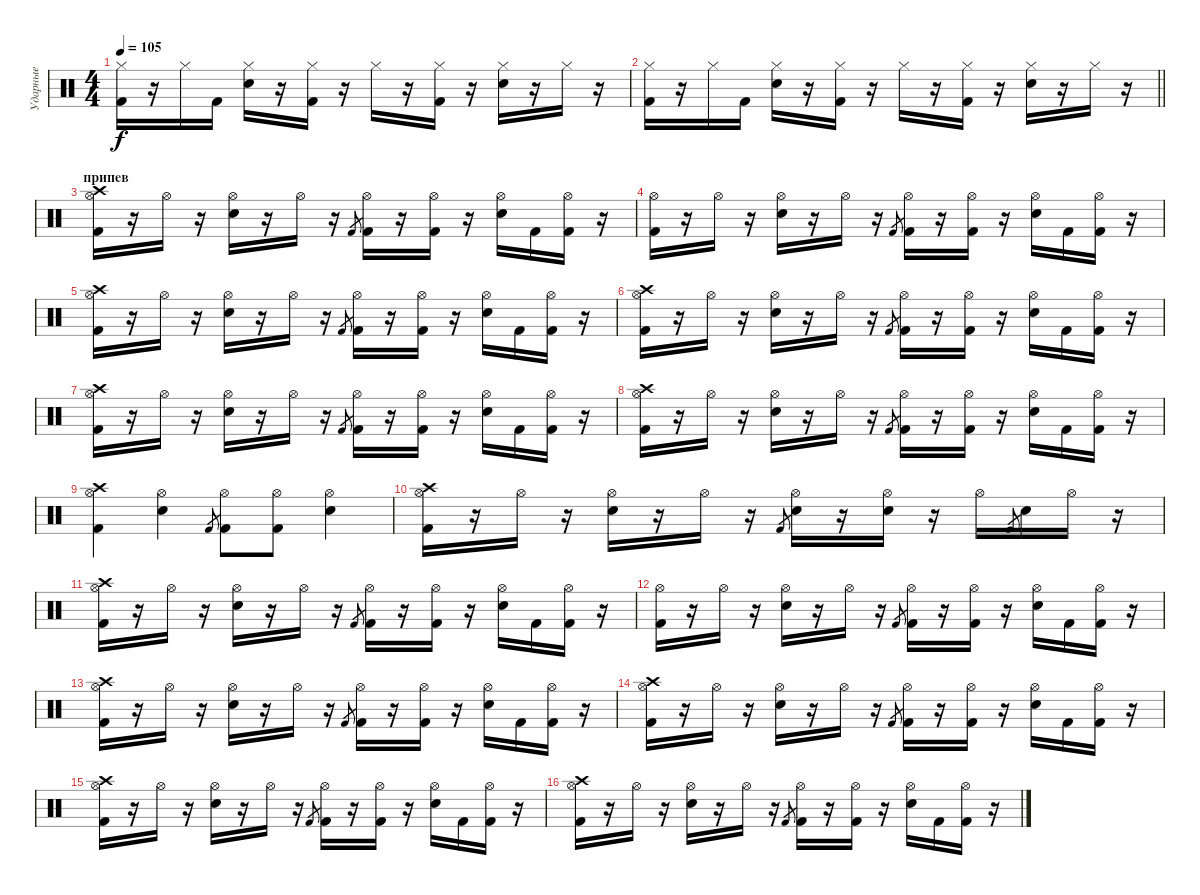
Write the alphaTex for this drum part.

\track ("Ударные" "Ударные") {instrument percussion}
\staff {score}
\articulation defaults
\ts (4 4)
\tempo 105
\clef neutral
\ks c
("Hi-Hat (closed)" "Kick (hit) 2").16{dy f} r.16 "Hi-Hat (closed)".16 "Kick (hit) 2".16 ("Hi-Hat (closed)" "Electric Snare (hit)").16 r.16 ("Hi-Hat (closed)" "Kick (hit) 2").16 r.16 "Hi-Hat (closed)".16 r.16 ("Hi-Hat (closed)" "Kick (hit) 2").16 r.16 ("Hi-Hat (closed)" "Electric Snare (hit)").16 r.16 "Hi-Hat (closed)".16 r.16 |
\barLineRight lightlight
("Hi-Hat (closed)" "Kick (hit) 2").16 r.16 "Hi-Hat (closed)".16 "Kick (hit) 2".16 ("Hi-Hat (closed)" "Electric Snare (hit)").16 r.16 ("Hi-Hat (closed)" "Kick (hit) 2").16 r.16 "Hi-Hat (closed)".16 r.16 ("Hi-Hat (closed)" "Kick (hit) 2").16 r.16 ("Hi-Hat (closed)" "Electric Snare (hit)").16 r.16 "Hi-Hat (closed)".16 r.16 |
\section ("" "припев")
("Hi-Hat (open)" "Crash high (hit)" "Kick (hit) 2").16 r.16 "Hi-Hat (open)".16 r.16 ("Hi-Hat (open)" "Electric Snare (hit)").16 r.16 "Hi-Hat (open)".16 r.16 "Kick (hit) 2".8{gr} ("Hi-Hat (open)" "Kick (hit) 2").16 r.16 ("Hi-Hat (open)" "Kick (hit) 2").16 r.16 ("Hi-Hat (open)" "Electric Snare (hit)").16 "Kick (hit) 2".16 ("Hi-Hat (open)" "Kick (hit) 2").16 r.16 |
("Hi-Hat (open)" "Kick (hit) 2").16 r.16 "Hi-Hat (open)".16 r.16 ("Hi-Hat (open)" "Electric Snare (hit)").16 r.16 "Hi-Hat (open)".16 r.16 "Kick (hit) 2".8{gr} ("Hi-Hat (open)" "Kick (hit) 2").16 r.16 ("Hi-Hat (open)" "Kick (hit) 2").16 r.16 ("Hi-Hat (open)" "Electric Snare (hit)").16 "Kick (hit) 2".16 ("Hi-Hat (open)" "Kick (hit) 2").16 r.16 |
("Hi-Hat (open)" "Crash high (hit)" "Kick (hit) 2").16 r.16 "Hi-Hat (open)".16 r.16 ("Hi-Hat (open)" "Electric Snare (hit)").16 r.16 "Hi-Hat (open)".16 r.16 "Kick (hit) 2".8{gr} ("Hi-Hat (open)" "Kick (hit) 2").16 r.16 ("Hi-Hat (open)" "Kick (hit) 2").16 r.16 ("Hi-Hat (open)" "Electric Snare (hit)").16 "Kick (hit) 2".16 ("Hi-Hat (open)" "Kick (hit) 2").16 r.16 |
("Hi-Hat (open)" "Crash high (hit)" "Kick (hit) 2").16 r.16 "Hi-Hat (open)".16 r.16 ("Hi-Hat (open)" "Electric Snare (hit)").16 r.16 "Hi-Hat (open)".16 r.16 "Kick (hit) 2".8{gr} ("Hi-Hat (open)" "Kick (hit) 2").16 r.16 ("Hi-Hat (open)" "Kick (hit) 2").16 r.16 ("Hi-Hat (open)" "Electric Snare (hit)").16 "Kick (hit) 2".16 ("Hi-Hat (open)" "Kick (hit) 2").16 r.16 |
("Hi-Hat (open)" "Crash high (hit)" "Kick (hit) 2").16 r.16 "Hi-Hat (open)".16 r.16 ("Hi-Hat (open)" "Electric Snare (hit)").16 r.16 "Hi-Hat (open)".16 r.16 "Kick (hit) 2".8{gr} ("Hi-Hat (open)" "Kick (hit) 2").16 r.16 ("Hi-Hat (open)" "Kick (hit) 2").16 r.16 ("Hi-Hat (open)" "Electric Snare (hit)").16 "Kick (hit) 2".16 ("Hi-Hat (open)" "Kick (hit) 2").16 r.16 |
("Hi-Hat (open)" "Crash high (hit)" "Kick (hit) 2").16 r.16 "Hi-Hat (open)".16 r.16 ("Hi-Hat (open)" "Electric Snare (hit)").16 r.16 "Hi-Hat (open)".16 r.16 "Kick (hit) 2".8{gr} ("Hi-Hat (open)" "Kick (hit) 2").16 r.16 ("Hi-Hat (open)" "Kick (hit) 2").16 r.16 ("Hi-Hat (open)" "Electric Snare (hit)").16 "Kick (hit) 2".16 ("Hi-Hat (open)" "Kick (hit) 2").16 r.16 |
("Hi-Hat (open)" "Crash high (hit)" "Kick (hit) 2").4 ("Hi-Hat (open)" "Electric Snare (hit)").4 "Kick (hit) 2".8{gr} ("Hi-Hat (open)" "Kick (hit) 2").8 ("Hi-Hat (open)" "Kick (hit) 2").8 ("Hi-Hat (open)" "Electric Snare (hit)").4 |
("Hi-Hat (open)" "Crash high (hit)" "Kick (hit) 2").16 r.16 "Hi-Hat (open)".16 r.16 ("Hi-Hat (open)" "Electric Snare (hit)").16 r.16 "Hi-Hat (open)".16 r.16 "Kick (hit) 2".8{gr} ("Hi-Hat (open)" "Electric Snare (hit)").16 r.16 ("Hi-Hat (open)" "Electric Snare (hit)").16 r.16 "Hi-Hat (open)".16 "Kick (hit) 2".8{gr} "Electric Snare (hit)".16 "Hi-Hat (open)".16 r.16 |
("Hi-Hat (open)" "Crash high (hit)" "Kick (hit) 2").16 r.16 "Hi-Hat (open)".16 r.16 ("Hi-Hat (open)" "Electric Snare (hit)").16 r.16 "Hi-Hat (open)".16 r.16 "Kick (hit) 2".8{gr} ("Hi-Hat (open)" "Kick (hit) 2").16 r.16 ("Hi-Hat (open)" "Kick (hit) 2").16 r.16 ("Hi-Hat (open)" "Electric Snare (hit)").16 "Kick (hit) 2".16 ("Hi-Hat (open)" "Kick (hit) 2").16 r.16 |
("Hi-Hat (open)" "Kick (hit) 2").16 r.16 "Hi-Hat (open)".16 r.16 ("Hi-Hat (open)" "Electric Snare (hit)").16 r.16 "Hi-Hat (open)".16 r.16 "Kick (hit) 2".8{gr} ("Hi-Hat (open)" "Kick (hit) 2").16 r.16 ("Hi-Hat (open)" "Kick (hit) 2").16 r.16 ("Hi-Hat (open)" "Electric Snare (hit)").16 "Kick (hit) 2".16 ("Hi-Hat (open)" "Kick (hit) 2").16 r.16 |
("Hi-Hat (open)" "Crash high (hit)" "Kick (hit) 2").16 r.16 "Hi-Hat (open)".16 r.16 ("Hi-Hat (open)" "Electric Snare (hit)").16 r.16 "Hi-Hat (open)".16 r.16 "Kick (hit) 2".8{gr} ("Hi-Hat (open)" "Kick (hit) 2").16 r.16 ("Hi-Hat (open)" "Kick (hit) 2").16 r.16 ("Hi-Hat (open)" "Electric Snare (hit)").16 "Kick (hit) 2".16 ("Hi-Hat (open)" "Kick (hit) 2").16 r.16 |
("Hi-Hat (open)" "Crash high (hit)" "Kick (hit) 2").16 r.16 "Hi-Hat (open)".16 r.16 ("Hi-Hat (open)" "Electric Snare (hit)").16 r.16 "Hi-Hat (open)".16 r.16 "Kick (hit) 2".8{gr} ("Hi-Hat (open)" "Kick (hit) 2").16 r.16 ("Hi-Hat (open)" "Kick (hit) 2").16 r.16 ("Hi-Hat (open)" "Electric Snare (hit)").16 "Kick (hit) 2".16 ("Hi-Hat (open)" "Kick (hit) 2").16 r.16 |
("Hi-Hat (open)" "Crash high (hit)" "Kick (hit) 2").16 r.16 "Hi-Hat (open)".16 r.16 ("Hi-Hat (open)" "Electric Snare (hit)").16 r.16 "Hi-Hat (open)".16 r.16 "Kick (hit) 2".8{gr} ("Hi-Hat (open)" "Kick (hit) 2").16 r.16 ("Hi-Hat (open)" "Kick (hit) 2").16 r.16 ("Hi-Hat (open)" "Electric Snare (hit)").16 "Kick (hit) 2".16 ("Hi-Hat (open)" "Kick (hit) 2").16 r.16 |
("Hi-Hat (open)" "Crash high (hit)" "Kick (hit) 2").16 r.16 "Hi-Hat (open)".16 r.16 ("Hi-Hat (open)" "Electric Snare (hit)").16 r.16 "Hi-Hat (open)".16 r.16 "Kick (hit) 2".8{gr} ("Hi-Hat (open)" "Kick (hit) 2").16 r.16 ("Hi-Hat (open)" "Kick (hit) 2").16 r.16 ("Hi-Hat (open)" "Electric Snare (hit)").16 "Kick (hit) 2".16 ("Hi-Hat (open)" "Kick (hit) 2").16 r.16
